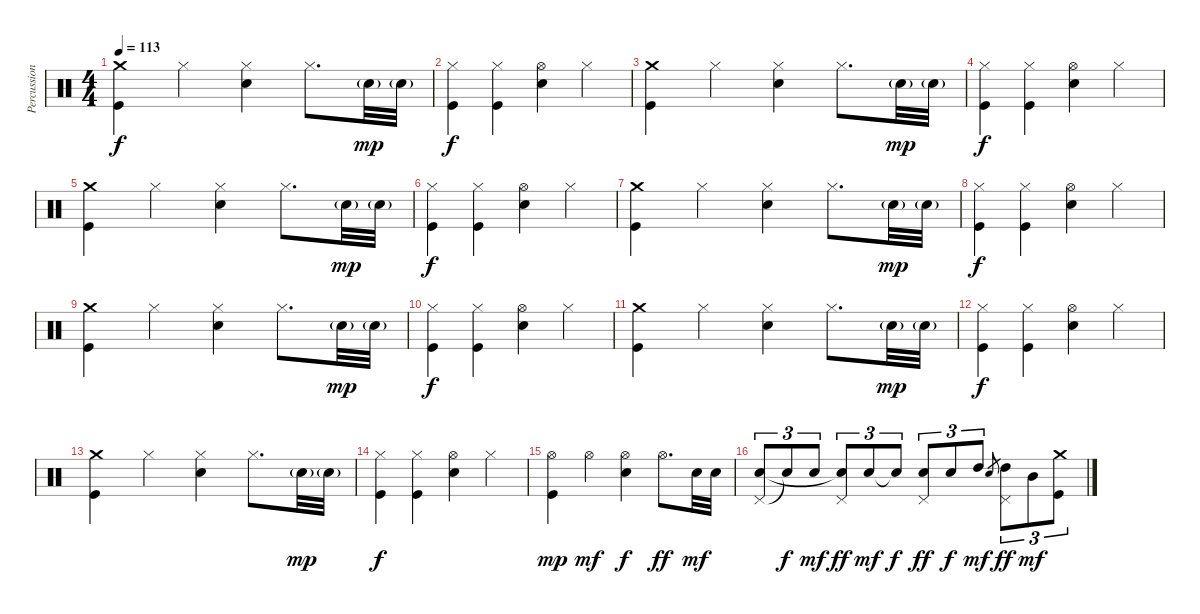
\track ("Percussioni" "Percussion") {instrument percussion}
\staff {score}
\articulation defaults
\ts (4 4)
\tempo 113
\clef neutral
\ks c
("Crash medium (hit)" "Kick (hit)").4{dy f} "Hi-Hat (closed)".4 ("Hi-Hat (closed)" "Electric Snare (hit)").4 "Hi-Hat (closed)".8{d} "Electric Snare (hit)"{g}.32{dy mp} "Electric Snare (hit)"{g}.32 |
("Hi-Hat (closed)" "Kick (hit)").4{dy f} ("Hi-Hat (closed)" "Kick (hit)").4 ("Hi-Hat (open)" "Electric Snare (hit)").4 "Hi-Hat (closed)".4 |
("Crash medium (hit)" "Kick (hit)").4 "Hi-Hat (closed)".4 ("Hi-Hat (closed)" "Electric Snare (hit)").4 "Hi-Hat (closed)".8{d} "Electric Snare (hit)"{g}.32{dy mp} "Electric Snare (hit)"{g}.32 |
("Hi-Hat (closed)" "Kick (hit)").4{dy f} ("Hi-Hat (closed)" "Kick (hit)").4 ("Hi-Hat (open)" "Electric Snare (hit)").4 "Hi-Hat (closed)".4 |
("Crash medium (hit)" "Kick (hit)").4 "Hi-Hat (closed)".4 ("Hi-Hat (closed)" "Electric Snare (hit)").4 "Hi-Hat (closed)".8{d} "Electric Snare (hit)"{g}.32{dy mp} "Electric Snare (hit)"{g}.32 |
("Hi-Hat (closed)" "Kick (hit)").4{dy f} ("Hi-Hat (closed)" "Kick (hit)").4 ("Hi-Hat (open)" "Electric Snare (hit)").4 "Hi-Hat (closed)".4 |
("Crash medium (hit)" "Kick (hit)").4 "Hi-Hat (closed)".4 ("Hi-Hat (closed)" "Electric Snare (hit)").4 "Hi-Hat (closed)".8{d} "Electric Snare (hit)"{g}.32{dy mp} "Electric Snare (hit)"{g}.32 |
("Hi-Hat (closed)" "Kick (hit)").4{dy f} ("Hi-Hat (closed)" "Kick (hit)").4 ("Hi-Hat (open)" "Electric Snare (hit)").4 "Hi-Hat (closed)".4 |
("Crash medium (hit)" "Kick (hit)").4 "Hi-Hat (closed)".4 ("Hi-Hat (closed)" "Electric Snare (hit)").4 "Hi-Hat (closed)".8{d} "Electric Snare (hit)"{g}.32{dy mp} "Electric Snare (hit)"{g}.32 |
("Hi-Hat (closed)" "Kick (hit)").4{dy f} ("Hi-Hat (closed)" "Kick (hit)").4 ("Hi-Hat (open)" "Electric Snare (hit)").4 "Hi-Hat (closed)".4 |
("Crash medium (hit)" "Kick (hit)").4 "Hi-Hat (closed)".4 ("Hi-Hat (closed)" "Electric Snare (hit)").4 "Hi-Hat (closed)".8{d} "Electric Snare (hit)"{g}.32{dy mp} "Electric Snare (hit)"{g}.32 |
("Hi-Hat (closed)" "Kick (hit)").4{dy f} ("Hi-Hat (closed)" "Kick (hit)").4 ("Hi-Hat (open)" "Electric Snare (hit)").4 "Hi-Hat (closed)".4 |
("Crash medium (hit)" "Kick (hit)").4 "Hi-Hat (closed)".4 ("Hi-Hat (closed)" "Electric Snare (hit)").4 "Hi-Hat (closed)".8{d} "Electric Snare (hit)"{g}.32{dy mp} "Electric Snare (hit)"{g}.32 |
("Hi-Hat (closed)" "Kick (hit)").4{dy f} ("Hi-Hat (closed)" "Kick (hit)").4 ("Hi-Hat (open)" "Electric Snare (hit)").4 "Hi-Hat (closed)".4 |
("Hi-Hat (open)" "Kick (hit)").4{dy mp} "Hi-Hat (open)".4{dy mf} ("Hi-Hat (open)" "Electric Snare (hit)").4{dy f} "Hi-Hat (open)".8{d dy ff} "Electric Snare (hit)".32{dy mf} "Electric Snare (hit)".32 |
("Pedal Hi-Hat (hit)" "Electric Snare (hit)").8{tu (3 2)} "Electric Snare (hit)"{t}.8{tu (3 2) dy f} "Electric Snare (hit)".8{tu (3 2) dy mf} ("Pedal Hi-Hat (hit)" "Electric Snare (hit)"{t}).8{tu (3 2) dy ff} "Electric Snare (hit)".8{tu (3 2) dy mf} "Electric Snare (hit)"{t}.8{tu (3 2) dy f} ("Pedal Hi-Hat (hit)" "Electric Snare (hit)").8{tu (3 2) dy ff} "Electric Snare (hit)".8{tu (3 2) dy f} "High Tom (hit)".8{tu (3 2) dy mf} "Electric Snare (hit)".8{gr} ("Pedal Hi-Hat (hit)" "High Tom (hit)").8{tu (3 2) dy ff} "Mid Tom (hit)".8{tu (3 2) dy mf} ("Crash medium (hit)" "Kick (hit)").8{tu (3 2)}
